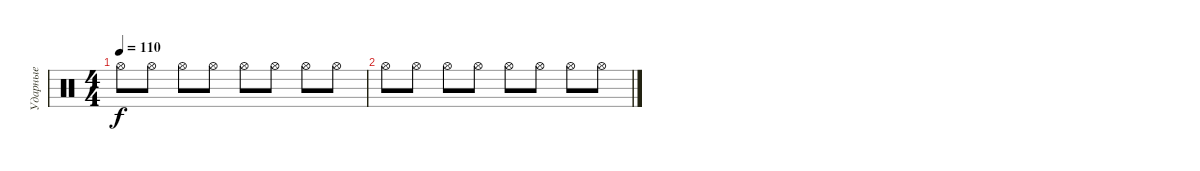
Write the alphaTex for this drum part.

\track ("Ударные" "Ударные") {instrument percussion}
\staff {score}
\articulation defaults
\ts (4 4)
\tempo 110
\clef neutral
\ks c "Hi-Hat (open)".8{dy f} "Hi-Hat (open)".8 "Hi-Hat (open)".8 "Hi-Hat (open)".8 "Hi-Hat (open)".8 "Hi-Hat (open)".8 "Hi-Hat (open)".8 "Hi-Hat (open)".8
|
"Hi-Hat (open)".8 "Hi-Hat (open)".8 "Hi-Hat (open)".8 "Hi-Hat (open)".8 "Hi-Hat (open)".8 "Hi-Hat (open)".8 "Hi-Hat (open)".8 "Hi-Hat (open)".8
